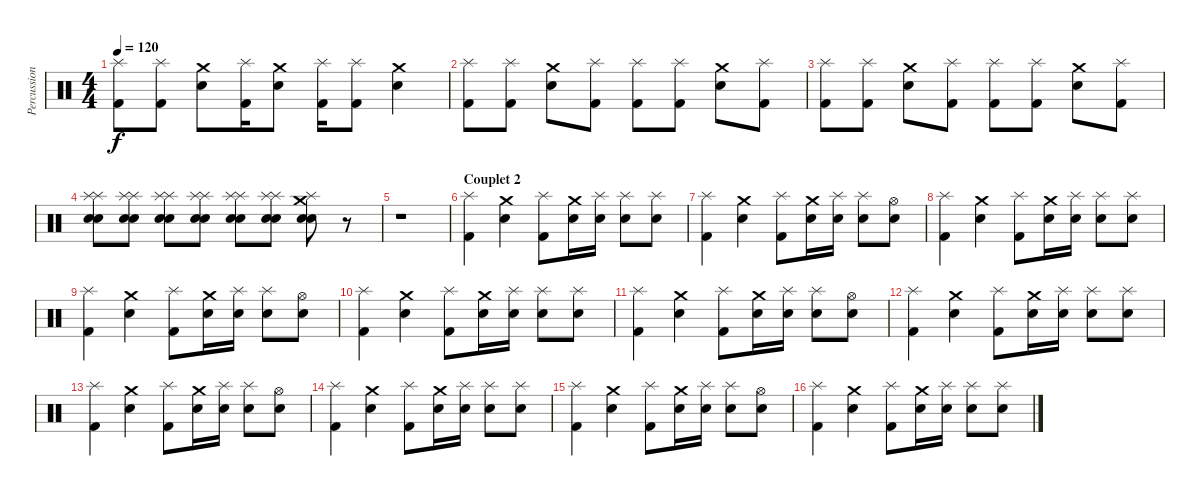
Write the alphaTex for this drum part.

\track ("Percussions" "Percussion") {instrument percussion}
\staff {score}
\articulation defaults
\ts (4 4)
\tempo 120
\clef neutral
\ks c
("Splash (hit)" "Kick (hit) 2").8{dy f} ("Splash (hit)" "Kick (hit) 2").8 ("Crash medium (hit)" "Snare (hit) 2").8 ("Splash (hit)" "Kick (hit) 2").16 ("Crash medium (hit)" "Snare (hit) 2").8 ("Splash (hit)" "Kick (hit) 2").16 ("Splash (hit)" "Kick (hit) 2").8 ("Crash medium (hit)" "Snare (hit) 2").4 |
("Splash (hit)" "Kick (hit) 2").8 ("Splash (hit)" "Kick (hit) 2").8 ("Crash medium (hit)" "Snare (hit) 2").8 ("Splash (hit)" "Kick (hit) 2").8 ("Splash (hit)" "Kick (hit) 2").8 ("Splash (hit)" "Kick (hit) 2").8 ("Crash medium (hit)" "Snare (hit) 2").8 ("Splash (hit)" "Kick (hit) 2").8 |
("Splash (hit)" "Kick (hit) 2").8 ("Splash (hit)" "Kick (hit) 2").8 ("Crash medium (hit)" "Snare (hit) 2").8 ("Splash (hit)" "Kick (hit) 2").8 ("Splash (hit)" "Kick (hit) 2").8 ("Splash (hit)" "Kick (hit) 2").8 ("Crash medium (hit)" "Snare (hit) 2").8 ("Splash (hit)" "Kick (hit) 2").8 |
("Splash (hit)" "Splash (hit)" "Snare (hit) 2" "Snare (hit) 2").8 ("Splash (hit)" "Splash (hit)" "Snare (hit) 2" "Snare (hit) 2").8 ("Splash (hit)" "Splash (hit)" "Snare (hit) 2" "Snare (hit) 2").8 ("Splash (hit)" "Splash (hit)" "Snare (hit) 2" "Snare (hit) 2").8 ("Splash (hit)" "Splash (hit)" "Snare (hit) 2" "Snare (hit) 2").8 ("Splash (hit)" "Splash (hit)" "Snare (hit) 2" "Snare (hit) 2").8 ("Crash medium (hit)" "Splash (hit)" "Snare (hit) 2" "Snare (hit) 2").8 r.8 |
r.1 |
\section ("" "Couplet 2")
("Splash (hit)" "Kick (hit) 2").4{volume 13} ("Crash medium (hit)" "Snare (hit) 2").4 ("Splash (hit)" "Kick (hit) 2").8 ("Crash medium (hit)" "Snare (hit) 2").16 ("Splash (hit)" "Snare (hit) 2").16 ("Splash (hit)" "Snare (hit) 2").8 ("Splash (hit)" "Snare (hit) 2").8 |
("Splash (hit)" "Kick (hit) 2").4 ("Crash medium (hit)" "Snare (hit) 2").4 ("Splash (hit)" "Kick (hit) 2").8 ("Crash medium (hit)" "Snare (hit) 2").16 ("Splash (hit)" "Snare (hit) 2").16 ("Splash (hit)" "Snare (hit) 2").8 ("Hi-Hat (open)" "Snare (hit) 2").8 |
("Splash (hit)" "Kick (hit) 2").4 ("Crash medium (hit)" "Snare (hit) 2").4 ("Splash (hit)" "Kick (hit) 2").8 ("Crash medium (hit)" "Snare (hit) 2").16 ("Splash (hit)" "Snare (hit) 2").16 ("Splash (hit)" "Snare (hit) 2").8 ("Splash (hit)" "Snare (hit) 2").8 |
("Splash (hit)" "Kick (hit) 2").4 ("Crash medium (hit)" "Snare (hit) 2").4 ("Splash (hit)" "Kick (hit) 2").8 ("Crash medium (hit)" "Snare (hit) 2").16 ("Splash (hit)" "Snare (hit) 2").16 ("Splash (hit)" "Snare (hit) 2").8 ("Hi-Hat (open)" "Snare (hit) 2").8 |
("Splash (hit)" "Kick (hit) 2").4 ("Crash medium (hit)" "Snare (hit) 2").4 ("Splash (hit)" "Kick (hit) 2").8 ("Crash medium (hit)" "Snare (hit) 2").16 ("Splash (hit)" "Snare (hit) 2").16 ("Splash (hit)" "Snare (hit) 2").8 ("Splash (hit)" "Snare (hit) 2").8 |
("Splash (hit)" "Kick (hit) 2").4 ("Crash medium (hit)" "Snare (hit) 2").4 ("Splash (hit)" "Kick (hit) 2").8 ("Crash medium (hit)" "Snare (hit) 2").16 ("Splash (hit)" "Snare (hit) 2").16 ("Splash (hit)" "Snare (hit) 2").8 ("Hi-Hat (open)" "Snare (hit) 2").8 |
("Splash (hit)" "Kick (hit) 2").4 ("Crash medium (hit)" "Snare (hit) 2").4 ("Splash (hit)" "Kick (hit) 2").8 ("Crash medium (hit)" "Snare (hit) 2").16 ("Splash (hit)" "Snare (hit) 2").16 ("Splash (hit)" "Snare (hit) 2").8 ("Splash (hit)" "Snare (hit) 2").8 |
("Splash (hit)" "Kick (hit) 2").4 ("Crash medium (hit)" "Snare (hit) 2").4 ("Splash (hit)" "Kick (hit) 2").8 ("Crash medium (hit)" "Snare (hit) 2").16 ("Splash (hit)" "Snare (hit) 2").16 ("Splash (hit)" "Snare (hit) 2").8 ("Hi-Hat (open)" "Snare (hit) 2").8 |
("Splash (hit)" "Kick (hit) 2").4 ("Crash medium (hit)" "Snare (hit) 2").4 ("Splash (hit)" "Kick (hit) 2").8 ("Crash medium (hit)" "Snare (hit) 2").16 ("Splash (hit)" "Snare (hit) 2").16 ("Splash (hit)" "Snare (hit) 2").8 ("Splash (hit)" "Snare (hit) 2").8 |
("Splash (hit)" "Kick (hit) 2").4 ("Crash medium (hit)" "Snare (hit) 2").4 ("Splash (hit)" "Kick (hit) 2").8 ("Crash medium (hit)" "Snare (hit) 2").16 ("Splash (hit)" "Snare (hit) 2").16 ("Splash (hit)" "Snare (hit) 2").8 ("Hi-Hat (open)" "Snare (hit) 2").8 |
("Splash (hit)" "Kick (hit) 2").4 ("Crash medium (hit)" "Snare (hit) 2").4 ("Splash (hit)" "Kick (hit) 2").8 ("Crash medium (hit)" "Snare (hit) 2").16 ("Splash (hit)" "Snare (hit) 2").16 ("Splash (hit)" "Snare (hit) 2").8 ("Splash (hit)" "Snare (hit) 2").8
